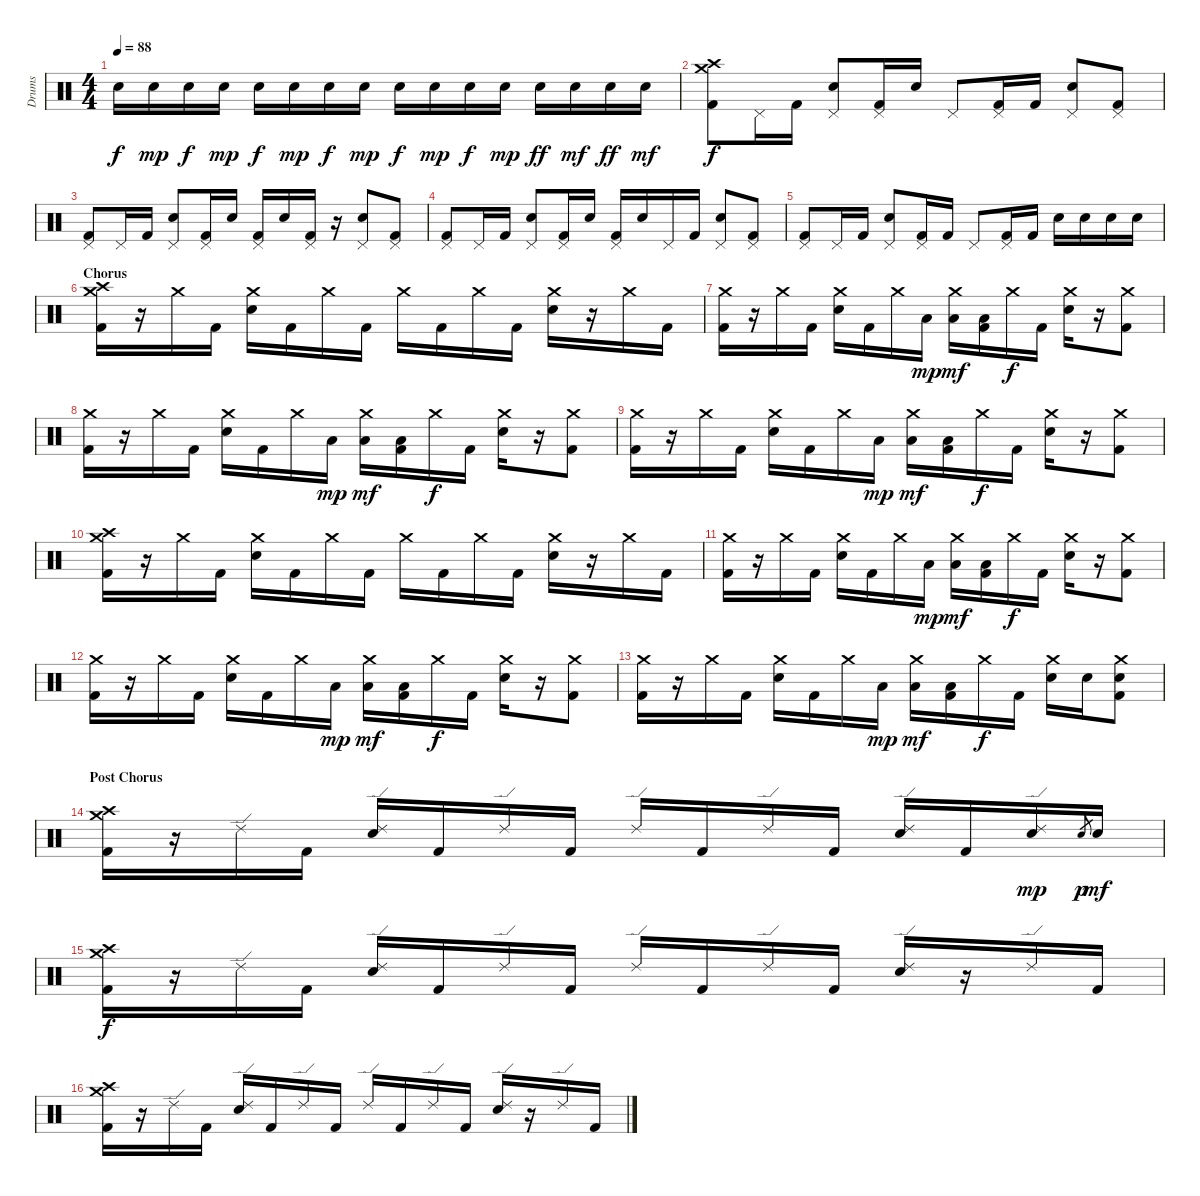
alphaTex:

\track ("Drums" "Drums") {instrument percussion}
\staff {score}
\articulation defaults
\ts (4 4)
\tempo 88
\clef neutral
\ks c "Electric Snare (hit)".16{dy f} "Electric Snare (hit)".16{dy mp} "Electric Snare (hit)".16{dy f} "Electric Snare (hit)".16{dy mp} "Electric Snare (hit)".16{dy f} "Electric Snare (hit)".16{dy mp} "Electric Snare (hit)".16{dy f} "Electric Snare (hit)".16{dy mp} "Electric Snare (hit)".16{dy f} "Electric Snare (hit)".16{dy mp} "Electric Snare (hit)".16{dy f} "Electric Snare (hit)".16{dy mp} "Electric Snare (hit)".16{dy ff} "Electric Snare (hit)".16{dy mf} "Electric Snare (hit)".16{dy ff} "Electric Snare (hit)".16{dy mf}
|
("Crash high (hit)" "Crash medium (hit)" "Kick (hit) 2").8{dy f} "Pedal Hi-Hat (hit)".16 "Kick (hit) 2".16 ("Pedal Hi-Hat (hit)" "Electric Snare (hit)").8 ("Pedal Hi-Hat (hit)" "Kick (hit) 2").16 "Electric Snare (hit)".16 "Pedal Hi-Hat (hit)".8 ("Pedal Hi-Hat (hit)" "Kick (hit) 2").16 "Kick (hit) 2".16 ("Pedal Hi-Hat (hit)" "Electric Snare (hit)").8 ("Pedal Hi-Hat (hit)" "Kick (hit) 2").8 |
("Pedal Hi-Hat (hit)" "Kick (hit) 2").8 "Pedal Hi-Hat (hit)".16 "Kick (hit) 2".16 ("Pedal Hi-Hat (hit)" "Electric Snare (hit)").8 ("Pedal Hi-Hat (hit)" "Kick (hit) 2").16 "Electric Snare (hit)".16 ("Pedal Hi-Hat (hit)" "Kick (hit) 2").16 "Electric Snare (hit)".16 ("Pedal Hi-Hat (hit)" "Kick (hit) 2").16 r.16 ("Pedal Hi-Hat (hit)" "Electric Snare (hit)").8 ("Pedal Hi-Hat (hit)" "Kick (hit) 2").8 |
("Pedal Hi-Hat (hit)" "Kick (hit) 2").8 "Pedal Hi-Hat (hit)".16 "Kick (hit) 2".16 ("Pedal Hi-Hat (hit)" "Electric Snare (hit)").8 ("Pedal Hi-Hat (hit)" "Kick (hit) 2").16 "Electric Snare (hit)".16 ("Pedal Hi-Hat (hit)" "Kick (hit) 2").16 "Electric Snare (hit)".16 "Pedal Hi-Hat (hit)".16 "Kick (hit) 2".16 ("Pedal Hi-Hat (hit)" "Electric Snare (hit)").8 ("Pedal Hi-Hat (hit)" "Kick (hit) 2").8 |
("Pedal Hi-Hat (hit)" "Kick (hit) 2").8 "Pedal Hi-Hat (hit)".16 "Kick (hit) 2".16 ("Pedal Hi-Hat (hit)" "Electric Snare (hit)").8 ("Pedal Hi-Hat (hit)" "Kick (hit) 2").16 "Kick (hit) 2".16 "Pedal Hi-Hat (hit)".8 ("Pedal Hi-Hat (hit)" "Kick (hit) 2").16 "Kick (hit) 2".16 "Electric Snare (hit)".16 "Electric Snare (hit)".16 "Electric Snare (hit)".16 "Electric Snare (hit)".16 |
\section ("" "Chorus")
("Crash medium (hit)" "Crash high (hit)" "Kick (hit) 2").16 r.16 "Crash medium (hit)".16 "Kick (hit) 2".16 ("Crash medium (hit)" "Electric Snare (hit)").16 "Kick (hit) 2".16 "Crash medium (hit)".16 "Kick (hit) 2".16 "Crash medium (hit)".16 "Kick (hit) 2".16 "Crash medium (hit)".16 "Kick (hit) 2".16 ("Crash medium (hit)" "Electric Snare (hit)").16 r.16 "Crash medium (hit)".16 "Kick (hit) 2".16 |
("Crash medium (hit)" "Kick (hit) 2").16 r.16 "Crash medium (hit)".16 "Kick (hit) 2".16 ("Crash medium (hit)" "Electric Snare (hit)").16 "Kick (hit) 2".16 "Crash medium (hit)".16 "Low Tom (hit)".16{dy mp} ("Crash medium (hit)" "Low Tom (hit)").16{dy mf} ("Low Tom (hit)" "Kick (hit) 2").16 "Crash medium (hit)".16{dy f} "Kick (hit) 2".16 ("Crash medium (hit)" "Electric Snare (hit)").16 r.16 ("Crash medium (hit)" "Kick (hit) 2").8 |
("Crash medium (hit)" "Kick (hit) 2").16 r.16 "Crash medium (hit)".16 "Kick (hit) 2".16 ("Crash medium (hit)" "Electric Snare (hit)").16 "Kick (hit) 2".16 "Crash medium (hit)".16 "Low Tom (hit)".16{dy mp} ("Crash medium (hit)" "Low Tom (hit)").16{dy mf} ("Low Tom (hit)" "Kick (hit) 2").16 "Crash medium (hit)".16{dy f} "Kick (hit) 2".16 ("Crash medium (hit)" "Electric Snare (hit)").16 r.16 ("Crash medium (hit)" "Kick (hit) 2").8 |
("Crash medium (hit)" "Kick (hit) 2").16 r.16 "Crash medium (hit)".16 "Kick (hit) 2".16 ("Crash medium (hit)" "Electric Snare (hit)").16 "Kick (hit) 2".16 "Crash medium (hit)".16 "Low Tom (hit)".16{dy mp} ("Crash medium (hit)" "Low Tom (hit)").16{dy mf} ("Low Tom (hit)" "Kick (hit) 2").16 "Crash medium (hit)".16{dy f} "Kick (hit) 2".16 ("Crash medium (hit)" "Electric Snare (hit)").16 r.16 ("Crash medium (hit)" "Kick (hit) 2").8 |
("Crash medium (hit)" "Crash high (hit)" "Kick (hit) 2").16 r.16 "Crash medium (hit)".16 "Kick (hit) 2".16 ("Crash medium (hit)" "Electric Snare (hit)").16 "Kick (hit) 2".16 "Crash medium (hit)".16 "Kick (hit) 2".16 "Crash medium (hit)".16 "Kick (hit) 2".16 "Crash medium (hit)".16 "Kick (hit) 2".16 ("Crash medium (hit)" "Electric Snare (hit)").16 r.16 "Crash medium (hit)".16 "Kick (hit) 2".16 |
("Crash medium (hit)" "Kick (hit) 2").16 r.16 "Crash medium (hit)".16 "Kick (hit) 2".16 ("Crash medium (hit)" "Electric Snare (hit)").16 "Kick (hit) 2".16 "Crash medium (hit)".16 "Low Tom (hit)".16{dy mp} ("Crash medium (hit)" "Low Tom (hit)").16{dy mf} ("Low Tom (hit)" "Kick (hit) 2").16 "Crash medium (hit)".16{dy f} "Kick (hit) 2".16 ("Crash medium (hit)" "Electric Snare (hit)").16 r.16 ("Crash medium (hit)" "Kick (hit) 2").8 |
("Crash medium (hit)" "Kick (hit) 2").16 r.16 "Crash medium (hit)".16 "Kick (hit) 2".16 ("Crash medium (hit)" "Electric Snare (hit)").16 "Kick (hit) 2".16 "Crash medium (hit)".16 "Low Tom (hit)".16{dy mp} ("Crash medium (hit)" "Low Tom (hit)").16{dy mf} ("Low Tom (hit)" "Kick (hit) 2").16 "Crash medium (hit)".16{dy f} "Kick (hit) 2".16 ("Crash medium (hit)" "Electric Snare (hit)").16 r.16 ("Crash medium (hit)" "Kick (hit) 2").8 |
("Crash medium (hit)" "Kick (hit) 2").16 r.16 "Crash medium (hit)".16 "Kick (hit) 2".16 ("Crash medium (hit)" "Electric Snare (hit)").16 "Kick (hit) 2".16 "Crash medium (hit)".16 "Low Tom (hit)".16{dy mp} ("Crash medium (hit)" "Low Tom (hit)").16{dy mf} ("Low Tom (hit)" "Kick (hit) 2").16 "Crash medium (hit)".16{dy f} "Kick (hit) 2".16 ("Crash medium (hit)" "Electric Snare (hit)").16 "Electric Snare (hit)".16 ("Crash medium (hit)" "Electric Snare (hit)" "Kick (hit) 2").8 |
\section ("" "Post Chorus")
("Crash medium (hit)" "Crash high (hit)" "Kick (hit) 2").16 r.16 "Ride (edge) 2".16 "Kick (hit) 2".16 ("Ride (edge) 2" "Electric Snare (hit)").16 "Kick (hit) 2".16 "Ride (edge) 2".16 "Kick (hit) 2".16 "Ride (edge) 2".16 "Kick (hit) 2".16 "Ride (edge) 2".16 "Kick (hit) 2".16 ("Ride (edge) 2" "Electric Snare (hit)").16 "Kick (hit) 2".16 ("Ride (edge) 2" "Electric Snare (hit)").16{dy mp} "Electric Snare (hit)".8{gr dy p} "Electric Snare (hit)".16{dy mf} |
("Crash medium (hit)" "Crash high (hit)" "Kick (hit) 2").16{dy f} r.16 "Ride (edge) 2".16 "Kick (hit) 2".16 ("Ride (edge) 2" "Electric Snare (hit)").16 "Kick (hit) 2".16 "Ride (edge) 2".16 "Kick (hit) 2".16 "Ride (edge) 2".16 "Kick (hit) 2".16 "Ride (edge) 2".16 "Kick (hit) 2".16 ("Ride (edge) 2" "Electric Snare (hit)").16 r.16 "Ride (edge) 2".16 "Kick (hit) 2".16 |
("Crash medium (hit)" "Crash high (hit)" "Kick (hit) 2").16 r.16 "Ride (edge) 2".16 "Kick (hit) 2".16 ("Ride (edge) 2" "Electric Snare (hit)").16 "Kick (hit) 2".16 "Ride (edge) 2".16 "Kick (hit) 2".16 "Ride (edge) 2".16 "Kick (hit) 2".16 "Ride (edge) 2".16 "Kick (hit) 2".16 ("Ride (edge) 2" "Electric Snare (hit)").16 r.16 "Ride (edge) 2".16 "Kick (hit) 2".16
